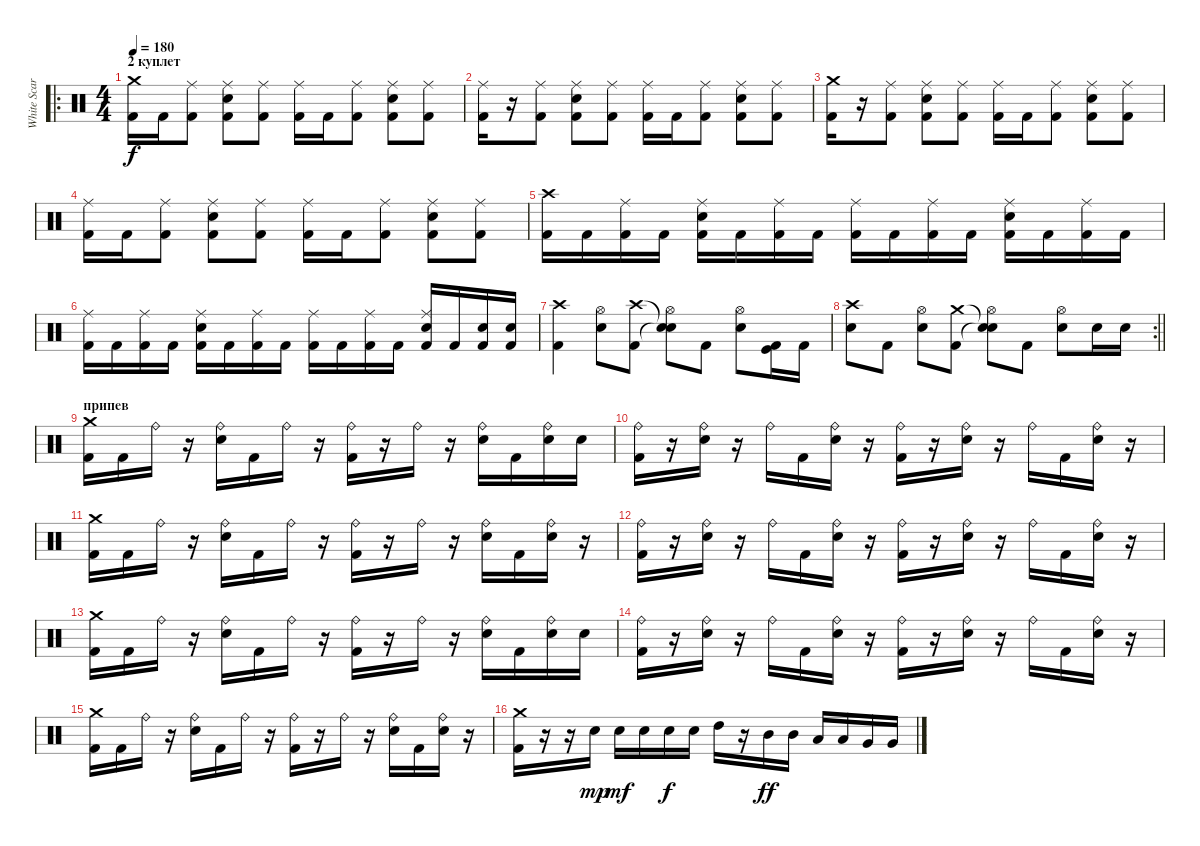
\track ("White Scar" "White Scar") {instrument percussion}
\staff {score}
\articulation defaults
\ro
\ts (4 4)
\section ("" "2 куплет")
\tempo 180
\clef neutral
\ks c
("Crash medium (hit)" "Kick (hit) 2").16{dy f} "Kick (hit) 2".16 ("Ride (middle)" "Kick (hit) 2").8 ("Snare (hit) 2" "Ride (middle)" "Kick (hit) 2").8 ("Ride (middle)" "Kick (hit) 2").8 ("Ride (middle)" "Kick (hit) 2").16 "Kick (hit) 2".16 ("Ride (middle)" "Kick (hit) 2").8 ("Snare (hit) 2" "Ride (middle)" "Kick (hit) 2").8 ("Ride (middle)" "Kick (hit) 2").8 |
("Ride (middle)" "Kick (hit) 2").16 r.16 ("Ride (middle)" "Kick (hit) 2").8 ("Snare (hit) 2" "Ride (middle)" "Kick (hit) 2").8 ("Ride (middle)" "Kick (hit) 2").8 ("Ride (middle)" "Kick (hit) 2").16 "Kick (hit) 2".16 ("Ride (middle)" "Kick (hit) 2").8 ("Snare (hit) 2" "Ride (middle)" "Kick (hit) 2").8 ("Ride (middle)" "Kick (hit) 2").8 |
("Crash medium (hit)" "Kick (hit) 2").16 r.16 ("Ride (middle)" "Kick (hit) 2").8 ("Snare (hit) 2" "Ride (middle)" "Kick (hit) 2").8 ("Ride (middle)" "Kick (hit) 2").8 ("Ride (middle)" "Kick (hit) 2").16 "Kick (hit) 2".16 ("Ride (middle)" "Kick (hit) 2").8 ("Snare (hit) 2" "Ride (middle)" "Kick (hit) 2").8 ("Ride (middle)" "Kick (hit) 2").8 |
("Ride (middle)" "Kick (hit) 2").16 "Kick (hit) 2".16 ("Ride (middle)" "Kick (hit) 2").8 ("Snare (hit) 2" "Ride (middle)" "Kick (hit) 2").8 ("Ride (middle)" "Kick (hit) 2").8 ("Ride (middle)" "Kick (hit) 2").16 "Kick (hit) 2".16 ("Ride (middle)" "Kick (hit) 2").8 ("Snare (hit) 2" "Ride (middle)" "Kick (hit) 2").8 ("Ride (middle)" "Kick (hit) 2").8 |
("Crash high (hit)" "Kick (hit) 2").16 "Kick (hit) 2".16 ("Ride (middle)" "Kick (hit) 2").16 "Kick (hit) 2".16 ("Snare (hit) 2" "Ride (middle)" "Kick (hit) 2").16 "Kick (hit) 2".16 ("Ride (middle)" "Kick (hit) 2").16 "Kick (hit) 2".16 ("Ride (middle)" "Kick (hit) 2").16 "Kick (hit) 2".16 ("Ride (middle)" "Kick (hit) 2").16 "Kick (hit) 2".16 ("Snare (hit) 2" "Ride (middle)" "Kick (hit) 2").16 "Kick (hit) 2".16 ("Ride (middle)" "Kick (hit) 2").16 "Kick (hit) 2".16 |
("Ride (middle)" "Kick (hit) 2").16 "Kick (hit) 2".16 ("Ride (middle)" "Kick (hit) 2").16 "Kick (hit) 2".16 ("Snare (hit) 2" "Ride (middle)" "Kick (hit) 2").16 "Kick (hit) 2".16 ("Ride (middle)" "Kick (hit) 2").16 "Kick (hit) 2".16 ("Ride (middle)" "Kick (hit) 2").16 "Kick (hit) 2".16 ("Ride (middle)" "Kick (hit) 2").16 "Kick (hit) 2".16 ("Snare (hit) 2" "Ride (middle)" "Kick (hit) 2").16 "Kick (hit) 2".16 ("Snare (hit) 2" "Kick (hit) 2").16 ("Snare (hit) 2" "Kick (hit) 2").16 |
("Kick (hit) 2" "Crash high (hit)").4 ("Snare (hit) 2" "Hi-Hat (open)").8 ("Kick (hit) 2" "Crash high (hit)").8 ("Snare (hit)"{t} "Snare (hit)"{t} "Hi-Hat (open)").8 "Kick (hit) 2".8 ("Snare (hit) 2" "Hi-Hat (open)").8 ("Kick (hit)" "Kick (hit) 2").16 "Kick (hit) 2".16 |
\rc 2
\barLineRight lightlight
("Snare (hit) 2" "Crash high (hit)").8 "Kick (hit) 2".8 ("Snare (hit) 2" "Hi-Hat (open)").8 ("Kick (hit) 2" "Crash medium (hit)").8 ("Snare (hit)"{t} "Snare (hit)"{t} "Hi-Hat (open)").8 "Kick (hit) 2".8 ("Snare (hit) 2" "Hi-Hat (open)").8 "Snare (hit) 2".16 "Snare (hit) 2".16 |
\section ("" "припев")
("Crash medium (hit)" "Kick (hit) 2").16 "Kick (hit) 2".16 "Ride (bell)".16 r.16 ("Ride (bell)" "Snare (hit) 2").16 "Kick (hit) 2".16 "Ride (bell)".16 r.16 ("Ride (bell)" "Kick (hit) 2").16 r.16 "Ride (bell)".16 r.16 ("Ride (bell)" "Snare (hit) 2").16 "Kick (hit) 2".16 ("Ride (bell)" "Snare (hit) 2").16 "Snare (hit) 2".16 |
("Ride (bell)" "Kick (hit) 2").16 r.16 ("Ride (bell)" "Snare (hit) 2").16 r.16 "Ride (bell)".16 "Kick (hit) 2".16 ("Ride (bell)" "Snare (hit) 2").16 r.16 ("Ride (bell)" "Kick (hit) 2").16 r.16 ("Ride (bell)" "Snare (hit) 2").16 r.16 "Ride (bell)".16 "Kick (hit) 2".16 ("Ride (bell)" "Snare (hit) 2").16 r.16 |
("Crash medium (hit)" "Kick (hit) 2").16 "Kick (hit) 2".16 "Ride (bell)".16 r.16 ("Ride (bell)" "Snare (hit) 2").16 "Kick (hit) 2".16 "Ride (bell)".16 r.16 ("Ride (bell)" "Kick (hit) 2").16 r.16 "Ride (bell)".16 r.16 ("Ride (bell)" "Snare (hit) 2").16 "Kick (hit) 2".16 ("Ride (bell)" "Snare (hit) 2").16 r.16 |
("Ride (bell)" "Kick (hit) 2").16 r.16 ("Ride (bell)" "Snare (hit) 2").16 r.16 "Ride (bell)".16 "Kick (hit) 2".16 ("Ride (bell)" "Snare (hit) 2").16 r.16 ("Ride (bell)" "Kick (hit) 2").16 r.16 ("Ride (bell)" "Snare (hit) 2").16 r.16 "Ride (bell)".16 "Kick (hit) 2".16 ("Ride (bell)" "Snare (hit) 2").16 r.16 |
("Crash medium (hit)" "Kick (hit) 2").16 "Kick (hit) 2".16 "Ride (bell)".16 r.16 ("Ride (bell)" "Snare (hit) 2").16 "Kick (hit) 2".16 "Ride (bell)".16 r.16 ("Ride (bell)" "Kick (hit) 2").16 r.16 "Ride (bell)".16 r.16 ("Ride (bell)" "Snare (hit) 2").16 "Kick (hit) 2".16 ("Ride (bell)" "Snare (hit) 2").16 "Snare (hit) 2".16 |
("Ride (bell)" "Kick (hit) 2").16 r.16 ("Ride (bell)" "Snare (hit) 2").16 r.16 "Ride (bell)".16 "Kick (hit) 2".16 ("Ride (bell)" "Snare (hit) 2").16 r.16 ("Ride (bell)" "Kick (hit) 2").16 r.16 ("Ride (bell)" "Snare (hit) 2").16 r.16 "Ride (bell)".16 "Kick (hit) 2".16 ("Ride (bell)" "Snare (hit) 2").16 r.16 |
("Crash medium (hit)" "Kick (hit) 2").16 "Kick (hit) 2".16 "Ride (bell)".16 r.16 ("Ride (bell)" "Snare (hit) 2").16 "Kick (hit) 2".16 "Ride (bell)".16 r.16 ("Ride (bell)" "Kick (hit) 2").16 r.16 "Ride (bell)".16 r.16 ("Ride (bell)" "Snare (hit) 2").16 "Kick (hit) 2".16 ("Ride (bell)" "Snare (hit) 2").16 r.16 |
("Crash medium (hit)" "Kick (hit) 2").16 r.16 r.16 "Snare (hit) 2".16{dy mp} "Snare (hit) 2".16{dy mf} "Snare (hit) 2".16 "Snare (hit) 2".16{dy f} "Snare (hit) 2".16 "High Tom (hit)".16 r.16 "Mid Tom (hit)".16{dy ff} "Mid Tom (hit)".16 "Low Tom (hit)".16 "Low Tom (hit)".16 "Very Low Tom (hit)".16 "Very Low Tom (hit)".16
